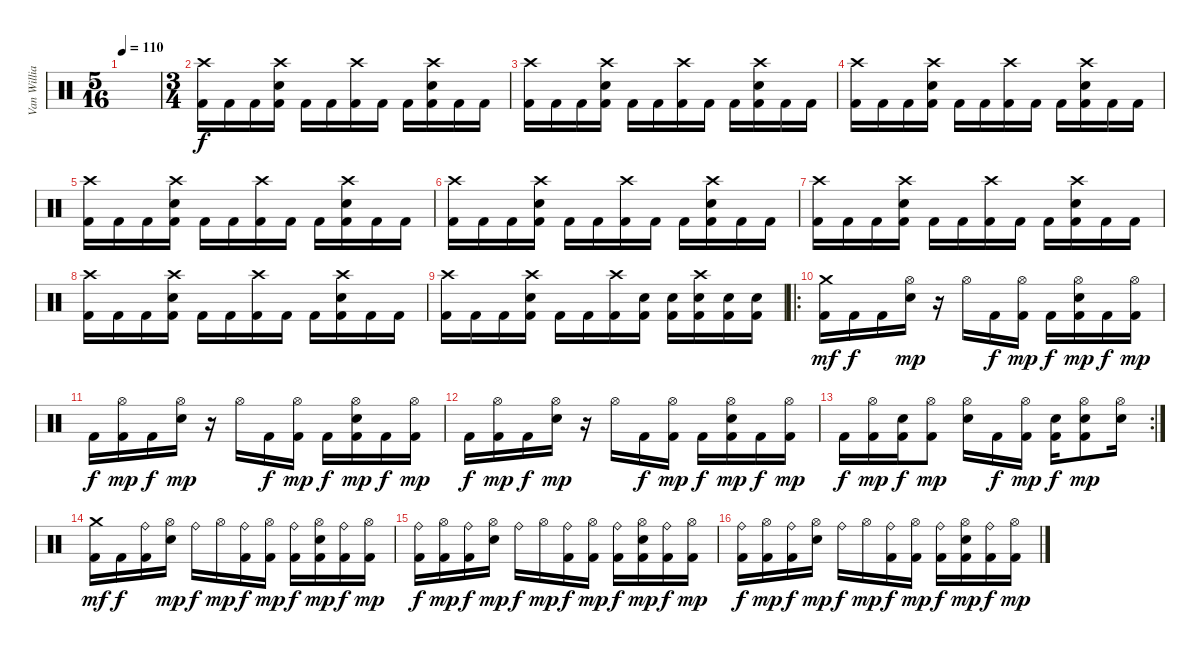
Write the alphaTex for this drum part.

\track ("Van Williams" "Van Willia") {instrument percussion}
\staff {score}
\articulation defaults
\ts (5 16)
\tempo 110
\clef neutral
\ks c
|
\ts (3 4)
("Crash high (hit)" "Kick (hit) 2").16 "Kick (hit) 2".16 "Kick (hit) 2".16 ("Crash high (hit)" "Electric Snare (hit)" "Kick (hit) 2").16 "Kick (hit) 2".16 "Kick (hit) 2".16 ("Crash high (hit)" "Kick (hit) 2").16 "Kick (hit) 2".16 "Kick (hit) 2".16 ("Crash high (hit)" "Electric Snare (hit)" "Kick (hit) 2").16 "Kick (hit) 2".16 "Kick (hit) 2".16 |
("Crash high (hit)" "Kick (hit) 2").16 "Kick (hit) 2".16 "Kick (hit) 2".16 ("Crash high (hit)" "Electric Snare (hit)" "Kick (hit) 2").16 "Kick (hit) 2".16 "Kick (hit) 2".16 ("Crash high (hit)" "Kick (hit) 2").16 "Kick (hit) 2".16 "Kick (hit) 2".16 ("Crash high (hit)" "Electric Snare (hit)" "Kick (hit) 2").16 "Kick (hit) 2".16 "Kick (hit) 2".16 |
("Crash high (hit)" "Kick (hit) 2").16 "Kick (hit) 2".16 "Kick (hit) 2".16 ("Crash high (hit)" "Electric Snare (hit)" "Kick (hit) 2").16 "Kick (hit) 2".16 "Kick (hit) 2".16 ("Crash high (hit)" "Kick (hit) 2").16 "Kick (hit) 2".16 "Kick (hit) 2".16 ("Crash high (hit)" "Electric Snare (hit)" "Kick (hit) 2").16 "Kick (hit) 2".16 "Kick (hit) 2".16 |
("Crash high (hit)" "Kick (hit) 2").16 "Kick (hit) 2".16 "Kick (hit) 2".16 ("Crash high (hit)" "Electric Snare (hit)" "Kick (hit) 2").16 "Kick (hit) 2".16 "Kick (hit) 2".16 ("Crash high (hit)" "Kick (hit) 2").16 "Kick (hit) 2".16 "Kick (hit) 2".16 ("Crash high (hit)" "Electric Snare (hit)" "Kick (hit) 2").16 "Kick (hit) 2".16 "Kick (hit) 2".16 |
("Crash high (hit)" "Kick (hit) 2").16 "Kick (hit) 2".16 "Kick (hit) 2".16 ("Crash high (hit)" "Electric Snare (hit)" "Kick (hit) 2").16 "Kick (hit) 2".16 "Kick (hit) 2".16 ("Crash high (hit)" "Kick (hit) 2").16 "Kick (hit) 2".16 "Kick (hit) 2".16 ("Crash high (hit)" "Electric Snare (hit)" "Kick (hit) 2").16 "Kick (hit) 2".16 "Kick (hit) 2".16 |
("Crash high (hit)" "Kick (hit) 2").16 "Kick (hit) 2".16 "Kick (hit) 2".16 ("Crash high (hit)" "Electric Snare (hit)" "Kick (hit) 2").16 "Kick (hit) 2".16 "Kick (hit) 2".16 ("Crash high (hit)" "Kick (hit) 2").16 "Kick (hit) 2".16 "Kick (hit) 2".16 ("Crash high (hit)" "Electric Snare (hit)" "Kick (hit) 2").16 "Kick (hit) 2".16 "Kick (hit) 2".16 |
("Crash high (hit)" "Kick (hit) 2").16 "Kick (hit) 2".16 "Kick (hit) 2".16 ("Crash high (hit)" "Electric Snare (hit)" "Kick (hit) 2").16 "Kick (hit) 2".16 "Kick (hit) 2".16 ("Crash high (hit)" "Kick (hit) 2").16 "Kick (hit) 2".16 "Kick (hit) 2".16 ("Crash high (hit)" "Electric Snare (hit)" "Kick (hit) 2").16 "Kick (hit) 2".16 "Kick (hit) 2".16 |
("Crash high (hit)" "Kick (hit) 2").16 "Kick (hit) 2".16 "Kick (hit) 2".16 ("Crash high (hit)" "Electric Snare (hit)" "Kick (hit) 2").16 "Kick (hit) 2".16 "Kick (hit) 2".16 ("Crash high (hit)" "Kick (hit) 2").16 ("Electric Snare (hit)" "Kick (hit) 2").16 ("Electric Snare (hit)" "Kick (hit) 2").16 ("Crash high (hit)" "Electric Snare (hit)" "Kick (hit) 2").16 ("Electric Snare (hit)" "Kick (hit) 2").16 ("Electric Snare (hit)" "Kick (hit) 2").16 |
\ro
("Crash medium (hit)" "Kick (hit) 2").16{dy mf} "Kick (hit) 2".16{dy f} "Kick (hit) 2".16 ("Hi-Hat (open)" "Electric Snare (hit)").16{dy mp} r.16 "Hi-Hat (open)".16 "Kick (hit) 2".16{dy f} ("Hi-Hat (open)" "Kick (hit) 2").16{dy mp} "Kick (hit) 2".16{dy f} ("Hi-Hat (open)" "Electric Snare (hit)" "Kick (hit) 2").16{dy mp} "Kick (hit) 2".16{dy f} ("Hi-Hat (open)" "Kick (hit) 2").16{dy mp} |
"Kick (hit) 2".16{dy f} ("Hi-Hat (open)" "Kick (hit) 2").16{dy mp} "Kick (hit) 2".16{dy f} ("Hi-Hat (open)" "Electric Snare (hit)").16{dy mp} r.16 "Hi-Hat (open)".16 "Kick (hit) 2".16{dy f} ("Hi-Hat (open)" "Kick (hit) 2").16{dy mp} "Kick (hit) 2".16{dy f} ("Hi-Hat (open)" "Electric Snare (hit)" "Kick (hit) 2").16{dy mp} "Kick (hit) 2".16{dy f} ("Hi-Hat (open)" "Kick (hit) 2").16{dy mp} |
"Kick (hit) 2".16{dy f} ("Hi-Hat (open)" "Kick (hit) 2").16{dy mp} "Kick (hit) 2".16{dy f} ("Hi-Hat (open)" "Electric Snare (hit)").16{dy mp} r.16 "Hi-Hat (open)".16 "Kick (hit) 2".16{dy f} ("Hi-Hat (open)" "Kick (hit) 2").16{dy mp} "Kick (hit) 2".16{dy f} ("Hi-Hat (open)" "Electric Snare (hit)" "Kick (hit) 2").16{dy mp} "Kick (hit) 2".16{dy f} ("Hi-Hat (open)" "Kick (hit) 2").16{dy mp} |
\rc 2 "Kick (hit) 2".16{dy f}
("Hi-Hat (open)" "Kick (hit) 2").16{dy mp} ("Electric Snare (hit)" "Kick (hit) 2").16{dy f} ("Hi-Hat (open)" "Kick (hit) 2").8{dy mp} ("Hi-Hat (open)" "Electric Snare (hit)").16 "Kick (hit) 2".16{dy f} ("Hi-Hat (open)" "Kick (hit) 2").16{dy mp} ("Electric Snare (hit)" "Kick (hit) 2").16{dy f} ("Hi-Hat (open)" "Electric Snare (hit)" "Kick (hit) 2").8{dy mp} ("Hi-Hat (open)" "Electric Snare (hit)").16 |
("Crash medium (hit)" "Kick (hit) 2").16{dy mf} "Kick (hit) 2".16{dy f} ("Ride (bell)" "Kick (hit) 2").16 ("Hi-Hat (open)" "Electric Snare (hit)").16{dy mp} "Ride (bell)".16{dy f} "Hi-Hat (open)".16{dy mp} ("Ride (bell)" "Kick (hit) 2").16{dy f} ("Hi-Hat (open)" "Kick (hit) 2").16{dy mp} ("Ride (bell)" "Kick (hit) 2").16{dy f} ("Hi-Hat (open)" "Electric Snare (hit)" "Kick (hit) 2").16{dy mp} ("Ride (bell)" "Kick (hit) 2").16{dy f} ("Hi-Hat (open)" "Kick (hit) 2").16{dy mp} |
("Ride (bell)" "Kick (hit) 2").16{dy f} ("Hi-Hat (open)" "Kick (hit) 2").16{dy mp} ("Ride (bell)" "Kick (hit) 2").16{dy f} ("Hi-Hat (open)" "Electric Snare (hit)").16{dy mp} "Ride (bell)".16{dy f} "Hi-Hat (open)".16{dy mp} ("Ride (bell)" "Kick (hit) 2").16{dy f} ("Hi-Hat (open)" "Kick (hit) 2").16{dy mp} ("Ride (bell)" "Kick (hit) 2").16{dy f} ("Hi-Hat (open)" "Electric Snare (hit)" "Kick (hit) 2").16{dy mp} ("Ride (bell)" "Kick (hit) 2").16{dy f} ("Hi-Hat (open)" "Kick (hit) 2").16{dy mp} |
("Ride (bell)" "Kick (hit) 2").16{dy f} ("Hi-Hat (open)" "Kick (hit) 2").16{dy mp} ("Ride (bell)" "Kick (hit) 2").16{dy f} ("Hi-Hat (open)" "Electric Snare (hit)").16{dy mp} "Ride (bell)".16{dy f} "Hi-Hat (open)".16{dy mp} ("Ride (bell)" "Kick (hit) 2").16{dy f} ("Hi-Hat (open)" "Kick (hit) 2").16{dy mp} ("Ride (bell)" "Kick (hit) 2").16{dy f} ("Hi-Hat (open)" "Electric Snare (hit)" "Kick (hit) 2").16{dy mp} ("Ride (bell)" "Kick (hit) 2").16{dy f} ("Hi-Hat (open)" "Kick (hit) 2").16{dy mp}
